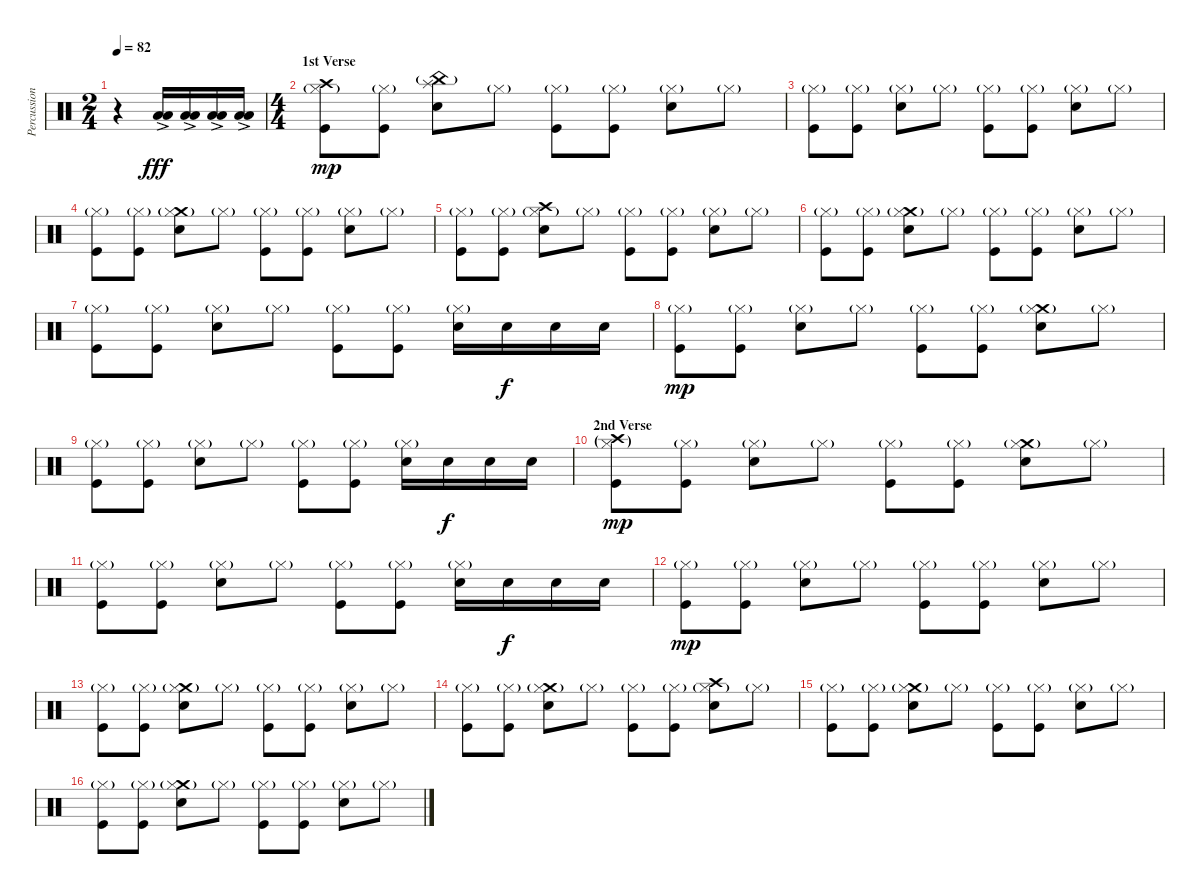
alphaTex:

\track ("Percussion" "Percussion") {instrument percussion}
\staff {score}
\articulation defaults
\ts (2 4)
\tempo 82
\clef neutral
\ks c
r.4{dy fff} ("Low Tom (hit)" "Low Floor Tom (hit)"{ac}).16{volume 16 balance 3} ("Low Tom (hit)" "Low Floor Tom (hit)"{ac}).16 ("Low Tom (hit)" "Low Floor Tom (hit)"{ac}).16 ("Low Tom (hit)" "Low Floor Tom (hit)"{ac}).16 |
\ts (4 4)
\section ("" "1st Verse")
("Crash high (hit)" "Hi-Hat (closed)"{g} "Kick (hit)").8{dy mp volume 13} ("Hi-Hat (closed)"{g} "Kick (hit)").8 ("China (hit)"{g} "Splash (hit)" "Electric Snare (hit)").8 "Hi-Hat (closed)"{g}.8 ("Hi-Hat (closed)"{g} "Kick (hit)").8 ("Hi-Hat (closed)"{g} "Kick (hit)").8 ("Hi-Hat (closed)"{g} "Electric Snare (hit)").8 "Hi-Hat (closed)"{g}.8 |
("Hi-Hat (closed)"{g} "Kick (hit)").8 ("Hi-Hat (closed)"{g} "Kick (hit)").8 ("Hi-Hat (closed)"{g} "Electric Snare (hit)").8 "Hi-Hat (closed)"{g}.8 ("Hi-Hat (closed)"{g} "Kick (hit)").8 ("Hi-Hat (closed)"{g} "Kick (hit)").8 ("Hi-Hat (closed)"{g} "Electric Snare (hit)").8 "Hi-Hat (closed)"{g}.8 |
("Hi-Hat (closed)"{g} "Kick (hit)").8 ("Hi-Hat (closed)"{g} "Kick (hit)").8 ("Crash medium (hit)" "Hi-Hat (closed)"{g} "Electric Snare (hit)").8 "Hi-Hat (closed)"{g}.8 ("Hi-Hat (closed)"{g} "Kick (hit)").8 ("Hi-Hat (closed)"{g} "Kick (hit)").8 ("Hi-Hat (closed)"{g} "Electric Snare (hit)").8 "Hi-Hat (closed)"{g}.8 |
("Hi-Hat (closed)"{g} "Kick (hit)").8 ("Hi-Hat (closed)"{g} "Kick (hit)").8 ("Crash high (hit)" "Hi-Hat (closed)"{g} "Electric Snare (hit)").8 "Hi-Hat (closed)"{g}.8 ("Hi-Hat (closed)"{g} "Kick (hit)").8 ("Hi-Hat (closed)"{g} "Kick (hit)").8 ("Hi-Hat (closed)"{g} "Electric Snare (hit)").8 "Hi-Hat (closed)"{g}.8 |
("Hi-Hat (closed)"{g} "Kick (hit)").8 ("Hi-Hat (closed)"{g} "Kick (hit)").8 ("Crash medium (hit)" "Hi-Hat (closed)"{g} "Electric Snare (hit)").8 "Hi-Hat (closed)"{g}.8 ("Hi-Hat (closed)"{g} "Kick (hit)").8 ("Hi-Hat (closed)"{g} "Kick (hit)").8 ("Hi-Hat (closed)"{g} "Electric Snare (hit)").8 "Hi-Hat (closed)"{g}.8 |
("Hi-Hat (closed)"{g} "Kick (hit)").8 ("Hi-Hat (closed)"{g} "Kick (hit)").8 ("Hi-Hat (closed)"{g} "Electric Snare (hit)").8 "Hi-Hat (closed)"{g}.8 ("Hi-Hat (closed)"{g} "Kick (hit)").8 ("Hi-Hat (closed)"{g} "Kick (hit)").8 ("Hi-Hat (closed)"{g} "Electric Snare (hit)").16 "Electric Snare (hit)".16{dy f} "Electric Snare (hit)".16 "Electric Snare (hit)".16 |
("Hi-Hat (closed)"{g} "Kick (hit)").8{dy mp} ("Hi-Hat (closed)"{g} "Kick (hit)").8 ("Hi-Hat (closed)"{g} "Electric Snare (hit)").8 "Hi-Hat (closed)"{g}.8 ("Hi-Hat (closed)"{g} "Kick (hit)").8 ("Hi-Hat (closed)"{g} "Kick (hit)").8 ("Crash medium (hit)" "Hi-Hat (closed)"{g} "Electric Snare (hit)").8 "Hi-Hat (closed)"{g}.8 |
("Hi-Hat (closed)"{g} "Kick (hit)").8 ("Hi-Hat (closed)"{g} "Kick (hit)").8 ("Hi-Hat (closed)"{g} "Electric Snare (hit)").8 "Hi-Hat (closed)"{g}.8 ("Hi-Hat (closed)"{g} "Kick (hit)").8 ("Hi-Hat (closed)"{g} "Kick (hit)").8 ("Hi-Hat (closed)"{g} "Electric Snare (hit)").16 "Electric Snare (hit)".16{dy f} "Electric Snare (hit)".16 "Electric Snare (hit)".16 |
\section ("" "2nd Verse")
("Crash high (hit)"{g} "Hi-Hat (closed)"{g} "Kick (hit)").8{dy mp} ("Hi-Hat (closed)"{g} "Kick (hit)").8 ("Hi-Hat (closed)"{g} "Electric Snare (hit)").8 "Hi-Hat (closed)"{g}.8 ("Hi-Hat (closed)"{g} "Kick (hit)").8 ("Hi-Hat (closed)"{g} "Kick (hit)").8 ("Crash medium (hit)" "Hi-Hat (closed)"{g} "Electric Snare (hit)").8 "Hi-Hat (closed)"{g}.8 |
("Hi-Hat (closed)"{g} "Kick (hit)").8 ("Hi-Hat (closed)"{g} "Kick (hit)").8 ("Hi-Hat (closed)"{g} "Electric Snare (hit)").8 "Hi-Hat (closed)"{g}.8 ("Hi-Hat (closed)"{g} "Kick (hit)").8 ("Hi-Hat (closed)"{g} "Kick (hit)").8 ("Hi-Hat (closed)"{g} "Electric Snare (hit)").16 "Electric Snare (hit)".16{dy f} "Electric Snare (hit)".16 "Electric Snare (hit)".16 |
("Hi-Hat (closed)"{g} "Kick (hit)").8{dy mp} ("Hi-Hat (closed)"{g} "Kick (hit)").8 ("Hi-Hat (closed)"{g} "Electric Snare (hit)").8 "Hi-Hat (closed)"{g}.8 ("Hi-Hat (closed)"{g} "Kick (hit)").8 ("Hi-Hat (closed)"{g} "Kick (hit)").8 ("Hi-Hat (closed)"{g} "Electric Snare (hit)").8 "Hi-Hat (closed)"{g}.8 |
("Hi-Hat (closed)"{g} "Kick (hit)").8 ("Hi-Hat (closed)"{g} "Kick (hit)").8 ("Crash medium (hit)" "Hi-Hat (closed)"{g} "Electric Snare (hit)").8 "Hi-Hat (closed)"{g}.8 ("Hi-Hat (closed)"{g} "Kick (hit)").8 ("Hi-Hat (closed)"{g} "Kick (hit)").8 ("Hi-Hat (closed)"{g} "Electric Snare (hit)").8 "Hi-Hat (closed)"{g}.8 |
("Hi-Hat (closed)"{g} "Kick (hit)").8 ("Hi-Hat (closed)"{g} "Kick (hit)").8 ("Crash medium (hit)" "Hi-Hat (closed)"{g} "Electric Snare (hit)").8 "Hi-Hat (closed)"{g}.8 ("Hi-Hat (closed)"{g} "Kick (hit)").8 ("Hi-Hat (closed)"{g} "Kick (hit)").8 ("Crash high (hit)" "Hi-Hat (closed)"{g} "Electric Snare (hit)").8 "Hi-Hat (closed)"{g}.8 |
("Hi-Hat (closed)"{g} "Kick (hit)").8 ("Hi-Hat (closed)"{g} "Kick (hit)").8 ("Crash medium (hit)" "Hi-Hat (closed)"{g} "Electric Snare (hit)").8 "Hi-Hat (closed)"{g}.8 ("Hi-Hat (closed)"{g} "Kick (hit)").8 ("Hi-Hat (closed)"{g} "Kick (hit)").8 ("Hi-Hat (closed)"{g} "Electric Snare (hit)").8 "Hi-Hat (closed)"{g}.8 |
("Hi-Hat (closed)"{g} "Kick (hit)").8 ("Hi-Hat (closed)"{g} "Kick (hit)").8 ("Crash medium (hit)" "Hi-Hat (closed)"{g} "Electric Snare (hit)").8 "Hi-Hat (closed)"{g}.8 ("Hi-Hat (closed)"{g} "Kick (hit)").8 ("Hi-Hat (closed)"{g} "Kick (hit)").8 ("Hi-Hat (closed)"{g} "Electric Snare (hit)").8 "Hi-Hat (closed)"{g}.8
